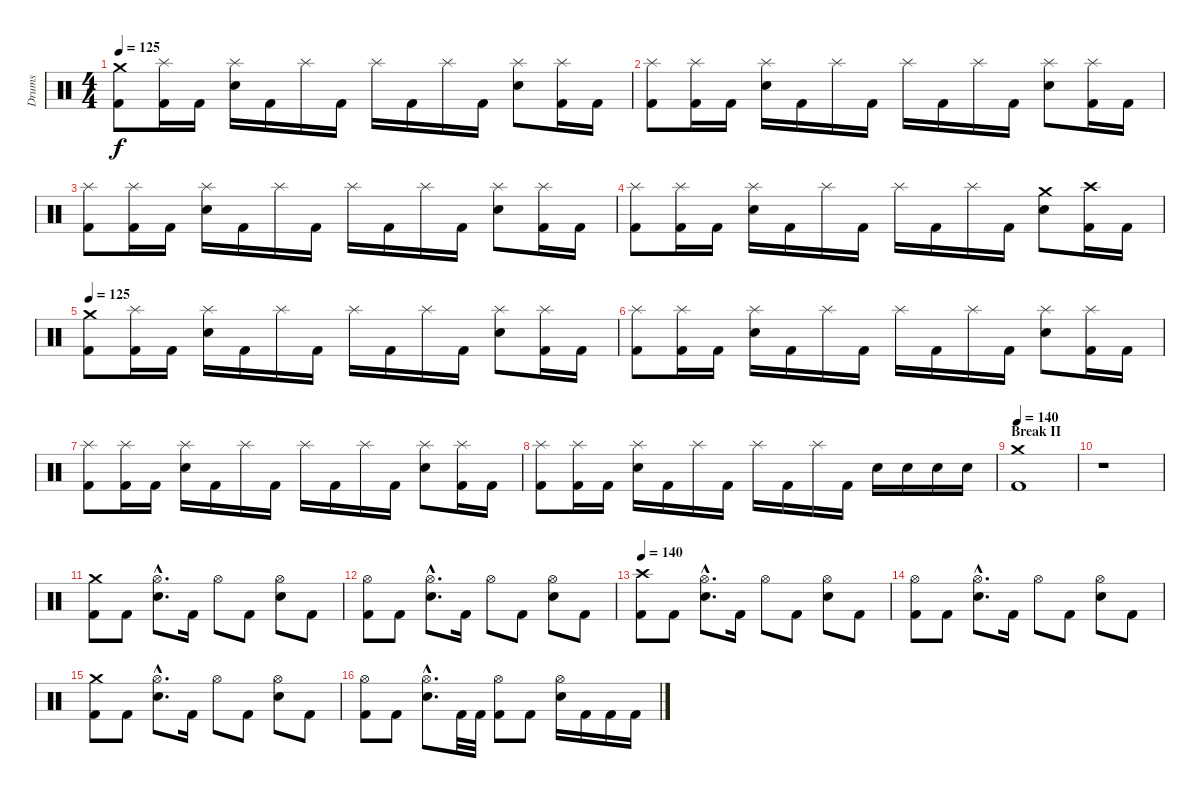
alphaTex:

\track ("Drums" "Drums") {instrument percussion}
\staff {score}
\articulation defaults
\ts (4 4)
\tempo 125
\clef neutral
\ks c
("Kick (hit) 2" "Crash medium (hit)").8{dy f} ("Kick (hit) 2" "Splash (hit)").16 "Kick (hit) 2".16 ("Electric Snare (hit)" "Splash (hit)").16 "Kick (hit) 2".16 "Splash (hit)".16 "Kick (hit) 2".16 "Splash (hit)".16 "Kick (hit) 2".16 "Splash (hit)".16 "Kick (hit) 2".16 ("Electric Snare (hit)" "Splash (hit)").8 ("Kick (hit) 2" "Splash (hit)").16 "Kick (hit) 2".16 |
("Kick (hit) 2" "Splash (hit)").8 ("Kick (hit) 2" "Splash (hit)").16 "Kick (hit) 2".16 ("Electric Snare (hit)" "Splash (hit)").16 "Kick (hit) 2".16 "Splash (hit)".16 "Kick (hit) 2".16 "Splash (hit)".16 "Kick (hit) 2".16 "Splash (hit)".16 "Kick (hit) 2".16 ("Electric Snare (hit)" "Splash (hit)").8 ("Kick (hit) 2" "Splash (hit)").16 "Kick (hit) 2".16 |
("Kick (hit) 2" "Splash (hit)").8 ("Kick (hit) 2" "Splash (hit)").16 "Kick (hit) 2".16 ("Electric Snare (hit)" "Splash (hit)").16 "Kick (hit) 2".16 "Splash (hit)".16 "Kick (hit) 2".16 "Splash (hit)".16 "Kick (hit) 2".16 "Splash (hit)".16 "Kick (hit) 2".16 ("Electric Snare (hit)" "Splash (hit)").8 ("Kick (hit) 2" "Splash (hit)").16 "Kick (hit) 2".16 |
("Kick (hit) 2" "Splash (hit)").8 ("Kick (hit) 2" "Splash (hit)").16 "Kick (hit) 2".16 ("Electric Snare (hit)" "Splash (hit)").16 "Kick (hit) 2".16 "Splash (hit)".16 "Kick (hit) 2".16 "Splash (hit)".16 "Kick (hit) 2".16 "Splash (hit)".16 "Kick (hit) 2".16 ("Electric Snare (hit)" "Crash medium (hit)").8 ("Kick (hit) 2" "Crash high (hit)").16 "Kick (hit) 2".16 |
\tempo 125
("Kick (hit) 2" "Crash medium (hit)").8 ("Kick (hit) 2" "Splash (hit)").16 "Kick (hit) 2".16 ("Electric Snare (hit)" "Splash (hit)").16 "Kick (hit) 2".16 "Splash (hit)".16 "Kick (hit) 2".16 "Splash (hit)".16 "Kick (hit) 2".16 "Splash (hit)".16 "Kick (hit) 2".16 ("Electric Snare (hit)" "Splash (hit)").8 ("Kick (hit) 2" "Splash (hit)").16 "Kick (hit) 2".16 |
("Kick (hit) 2" "Splash (hit)").8 ("Kick (hit) 2" "Splash (hit)").16 "Kick (hit) 2".16 ("Electric Snare (hit)" "Splash (hit)").16 "Kick (hit) 2".16 "Splash (hit)".16 "Kick (hit) 2".16 "Splash (hit)".16 "Kick (hit) 2".16 "Splash (hit)".16 "Kick (hit) 2".16 ("Electric Snare (hit)" "Splash (hit)").8 ("Kick (hit) 2" "Splash (hit)").16 "Kick (hit) 2".16 |
("Kick (hit) 2" "Splash (hit)").8 ("Kick (hit) 2" "Splash (hit)").16 "Kick (hit) 2".16 ("Electric Snare (hit)" "Splash (hit)").16 "Kick (hit) 2".16 "Splash (hit)".16 "Kick (hit) 2".16 "Splash (hit)".16 "Kick (hit) 2".16 "Splash (hit)".16 "Kick (hit) 2".16 ("Electric Snare (hit)" "Splash (hit)").8 ("Kick (hit) 2" "Splash (hit)").16 "Kick (hit) 2".16 |
("Kick (hit) 2" "Splash (hit)").8 ("Kick (hit) 2" "Splash (hit)").16 "Kick (hit) 2".16 ("Electric Snare (hit)" "Splash (hit)").16 "Kick (hit) 2".16 "Splash (hit)".16 "Kick (hit) 2".16 "Splash (hit)".16 "Kick (hit) 2".16 "Splash (hit)".16 "Kick (hit) 2".16 "Electric Snare (hit)".16 "Electric Snare (hit)".16 "Electric Snare (hit)".16 "Electric Snare (hit)".16 |
\section ("" "Break II")
\tempo 140
("Kick (hit) 2" "Crash medium (hit)").1 |
r.1 |
("Kick (hit) 2" "Crash medium (hit)").8 "Kick (hit) 2".8 ("Electric Snare (hit)"{hac} "Hi-Hat (open)"{hac}).8{d} "Kick (hit) 2".16 "Hi-Hat (open)".8 "Kick (hit) 2".8 ("Electric Snare (hit)" "Hi-Hat (open)").8 "Kick (hit) 2".8 |
("Kick (hit) 2" "Hi-Hat (open)").8 "Kick (hit) 2".8 ("Electric Snare (hit)"{hac} "Hi-Hat (open)"{hac}).8{d} "Kick (hit) 2".16 "Hi-Hat (open)".8 "Kick (hit) 2".8 ("Electric Snare (hit)" "Hi-Hat (open)").8 "Kick (hit) 2".8 |
\tempo 140
("Kick (hit) 2" "Crash high (hit)").8 "Kick (hit) 2".8 ("Electric Snare (hit)"{hac} "Hi-Hat (open)"{hac}).8{d} "Kick (hit) 2".16 "Hi-Hat (open)".8 "Kick (hit) 2".8 ("Electric Snare (hit)" "Hi-Hat (open)").8 "Kick (hit) 2".8 |
("Kick (hit) 2" "Hi-Hat (open)").8 "Kick (hit) 2".8 ("Electric Snare (hit)"{hac} "Hi-Hat (open)"{hac}).8{d} "Kick (hit) 2".16 "Hi-Hat (open)".8 "Kick (hit) 2".8 ("Electric Snare (hit)" "Hi-Hat (open)").8 "Kick (hit) 2".8 |
("Kick (hit) 2" "Crash medium (hit)").8 "Kick (hit) 2".8 ("Electric Snare (hit)"{hac} "Hi-Hat (open)"{hac}).8{d} "Kick (hit) 2".16 "Hi-Hat (open)".8 "Kick (hit) 2".8 ("Electric Snare (hit)" "Hi-Hat (open)").8 "Kick (hit) 2".8 |
("Kick (hit) 2" "Hi-Hat (open)").8 "Kick (hit) 2".8 ("Electric Snare (hit)"{hac} "Hi-Hat (open)"{hac}).8{d} "Kick (hit) 2".32 "Kick (hit) 2".32 ("Kick (hit) 2" "Hi-Hat (open)").8 "Kick (hit) 2".8 ("Electric Snare (hit)" "Hi-Hat (open)").16 "Kick (hit) 2".16 "Kick (hit) 2".16 "Kick (hit) 2".16
